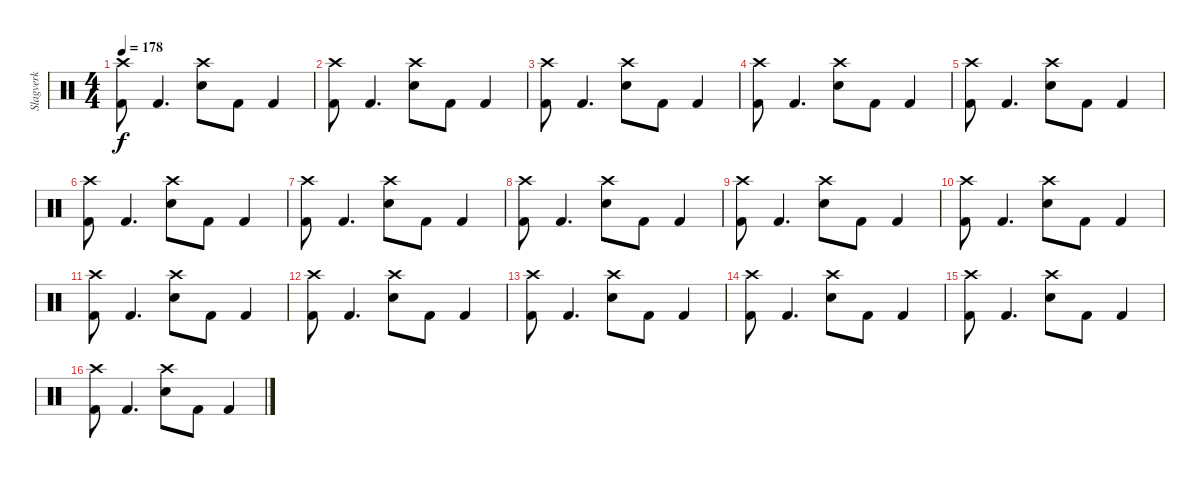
\track ("Slagverk" "Slagverk") {instrument percussion}
\staff {score}
\articulation defaults
\ts (4 4)
\tempo 178
\clef neutral
\ks c
("Crash high (hit)" "Kick (hit) 2").8{dy f} "Kick (hit) 2".4{d} ("Crash high (hit)" "Electric Snare (hit)").8 "Kick (hit) 2".8 "Kick (hit) 2".4 |
("Crash high (hit)" "Kick (hit) 2").8 "Kick (hit) 2".4{d} ("Crash high (hit)" "Electric Snare (hit)").8 "Kick (hit) 2".8 "Kick (hit) 2".4 |
("Crash high (hit)" "Kick (hit) 2").8 "Kick (hit) 2".4{d} ("Crash high (hit)" "Electric Snare (hit)").8 "Kick (hit) 2".8 "Kick (hit) 2".4 |
("Crash high (hit)" "Kick (hit) 2").8 "Kick (hit) 2".4{d} ("Crash high (hit)" "Electric Snare (hit)").8 "Kick (hit) 2".8 "Kick (hit) 2".4 |
("Crash high (hit)" "Kick (hit) 2").8 "Kick (hit) 2".4{d} ("Crash high (hit)" "Electric Snare (hit)").8 "Kick (hit) 2".8 "Kick (hit) 2".4 |
("Crash high (hit)" "Kick (hit) 2").8 "Kick (hit) 2".4{d} ("Crash high (hit)" "Electric Snare (hit)").8 "Kick (hit) 2".8 "Kick (hit) 2".4 |
("Crash high (hit)" "Kick (hit) 2").8 "Kick (hit) 2".4{d} ("Crash high (hit)" "Electric Snare (hit)").8 "Kick (hit) 2".8 "Kick (hit) 2".4 |
("Crash high (hit)" "Kick (hit) 2").8 "Kick (hit) 2".4{d} ("Crash high (hit)" "Electric Snare (hit)").8 "Kick (hit) 2".8 "Kick (hit) 2".4 |
("Crash high (hit)" "Kick (hit) 2").8 "Kick (hit) 2".4{d} ("Crash high (hit)" "Electric Snare (hit)").8 "Kick (hit) 2".8 "Kick (hit) 2".4 |
("Crash high (hit)" "Kick (hit) 2").8 "Kick (hit) 2".4{d} ("Crash high (hit)" "Electric Snare (hit)").8 "Kick (hit) 2".8 "Kick (hit) 2".4 |
("Crash high (hit)" "Kick (hit) 2").8 "Kick (hit) 2".4{d} ("Crash high (hit)" "Electric Snare (hit)").8 "Kick (hit) 2".8 "Kick (hit) 2".4 |
("Crash high (hit)" "Kick (hit) 2").8 "Kick (hit) 2".4{d} ("Crash high (hit)" "Electric Snare (hit)").8 "Kick (hit) 2".8 "Kick (hit) 2".4 |
("Crash high (hit)" "Kick (hit) 2").8 "Kick (hit) 2".4{d} ("Crash high (hit)" "Electric Snare (hit)").8 "Kick (hit) 2".8 "Kick (hit) 2".4 |
("Crash high (hit)" "Kick (hit) 2").8 "Kick (hit) 2".4{d} ("Crash high (hit)" "Electric Snare (hit)").8 "Kick (hit) 2".8 "Kick (hit) 2".4 |
("Crash high (hit)" "Kick (hit) 2").8 "Kick (hit) 2".4{d} ("Crash high (hit)" "Electric Snare (hit)").8 "Kick (hit) 2".8 "Kick (hit) 2".4 |
("Crash high (hit)" "Kick (hit) 2").8 "Kick (hit) 2".4{d} ("Crash high (hit)" "Electric Snare (hit)").8 "Kick (hit) 2".8 "Kick (hit) 2".4
